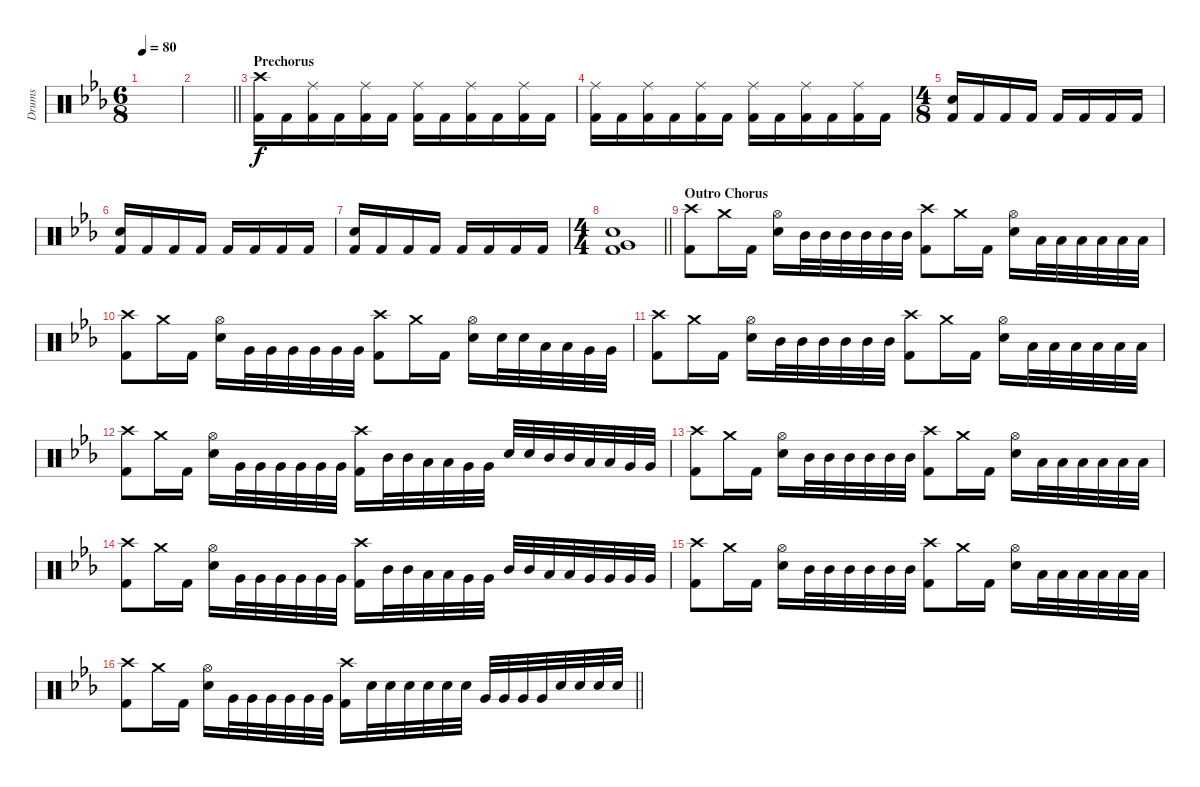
\track ("Drums" "Drums") {instrument percussion}
\staff {score}
\articulation defaults
\ts (6 8)
\tempo 80
\clef neutral
\ks cminor
|
\barLineRight lightlight
|
\section ("" "Prechorus")
("Crash high (hit)" "Kick (hit) 2").16 "Kick (hit) 2".16 ("Ride (middle)" "Kick (hit) 2").16 "Kick (hit) 2".16 ("Ride (middle)" "Kick (hit) 2").16 "Kick (hit) 2".16 ("Ride (middle)" "Kick (hit) 2").16 "Kick (hit) 2".16 ("Ride (middle)" "Kick (hit) 2").16 "Kick (hit) 2".16 ("Ride (middle)" "Kick (hit) 2").16 "Kick (hit) 2".16 |
("Ride (middle)" "Kick (hit) 2").16 "Kick (hit) 2".16 ("Ride (middle)" "Kick (hit) 2").16 "Kick (hit) 2".16 ("Ride (middle)" "Kick (hit) 2").16 "Kick (hit) 2".16 ("Ride (middle)" "Kick (hit) 2").16 "Kick (hit) 2".16 ("Ride (middle)" "Kick (hit) 2").16 "Kick (hit) 2".16 ("Ride (middle)" "Kick (hit) 2").16 "Kick (hit) 2".16 |
\ts (4 8)
("Snare (hit) 2" "Kick (hit) 2").16 "Kick (hit) 2".16 "Kick (hit) 2".16 "Kick (hit) 2".16 "Kick (hit) 2".16 "Kick (hit) 2".16 "Kick (hit) 2".16 "Kick (hit) 2".16 |
("Snare (hit) 2" "Kick (hit) 2").16 "Kick (hit) 2".16 "Kick (hit) 2".16 "Kick (hit) 2".16 "Kick (hit) 2".16 "Kick (hit) 2".16 "Kick (hit) 2".16 "Kick (hit) 2".16 |
("Snare (hit) 2" "Kick (hit) 2").16 "Kick (hit) 2".16 "Kick (hit) 2".16 "Kick (hit) 2".16 "Kick (hit) 2".16 "Kick (hit) 2".16 "Kick (hit) 2".16 "Kick (hit) 2".16 |
\ts (4 4)
\barLineRight lightlight
("Snare (hit) 2" "Very Low Tom (hit)" "Kick (hit) 2").1 |
\section ("" "Outro Chorus")
("Crash high (hit)" "Kick (hit) 2").8 "Crash medium (hit)".16 "Kick (hit) 2".16 ("Hi-Hat (open)" "Snare (hit) 2").16 "Mid Tom (hit)".32 "Mid Tom (hit)".32 "Mid Tom (hit)".32 "Mid Tom (hit)".32 "Mid Tom (hit)".32 "Mid Tom (hit)".32 ("Crash high (hit)" "Kick (hit) 2").8 "Crash medium (hit)".16 "Kick (hit) 2".16 ("Hi-Hat (open)" "Snare (hit) 2").16 "Low Tom (hit)".32 "Low Tom (hit)".32 "Low Tom (hit)".32 "Low Tom (hit)".32 "Low Tom (hit)".32 "Low Tom (hit)".32 |
("Crash high (hit)" "Kick (hit) 2").8 "Crash medium (hit)".16 "Kick (hit) 2".16 ("Hi-Hat (open)" "Snare (hit) 2").16 "Very Low Tom (hit)".32 "Very Low Tom (hit)".32 "Very Low Tom (hit)".32 "Very Low Tom (hit)".32 "Very Low Tom (hit)".32 "Very Low Tom (hit)".32 ("Crash high (hit)" "Kick (hit) 2").8 "Crash medium (hit)".16 "Kick (hit) 2".16 ("Hi-Hat (open)" "Snare (hit) 2").16 "Snare (hit) 2".32 "Snare (hit) 2".32 "Low Tom (hit)".32 "Low Tom (hit)".32 "Very Low Tom (hit)".32 "Very Low Tom (hit)".32 |
("Crash high (hit)" "Kick (hit) 2").8 "Crash medium (hit)".16 "Kick (hit) 2".16 ("Hi-Hat (open)" "Snare (hit) 2").16 "Mid Tom (hit)".32 "Mid Tom (hit)".32 "Mid Tom (hit)".32 "Mid Tom (hit)".32 "Mid Tom (hit)".32 "Mid Tom (hit)".32 ("Crash high (hit)" "Kick (hit) 2").8 "Crash medium (hit)".16 "Kick (hit) 2".16 ("Hi-Hat (open)" "Snare (hit) 2").16 "Low Tom (hit)".32 "Low Tom (hit)".32 "Low Tom (hit)".32 "Low Tom (hit)".32 "Low Tom (hit)".32 "Low Tom (hit)".32 |
("Crash high (hit)" "Kick (hit) 2").8 "Crash medium (hit)".16 "Kick (hit) 2".16 ("Hi-Hat (open)" "Snare (hit) 2").16 "Very Low Tom (hit)".32 "Very Low Tom (hit)".32 "Very Low Tom (hit)".32 "Very Low Tom (hit)".32 "Very Low Tom (hit)".32 "Very Low Tom (hit)".32 ("Crash high (hit)" "Kick (hit) 2").16 "Mid Tom (hit)".32 "Mid Tom (hit)".32 "Low Tom (hit)".32 "Low Tom (hit)".32 "Very Low Tom (hit)".32 "Very Low Tom (hit)".32 "Snare (hit) 2".32 "Snare (hit) 2".32 "Mid Tom (hit)".32 "Mid Tom (hit)".32 "Low Tom (hit)".32 "Low Tom (hit)".32 "Very Low Tom (hit)".32 "Very Low Tom (hit)".32 |
("Crash high (hit)" "Kick (hit) 2").8 "Crash medium (hit)".16 "Kick (hit) 2".16 ("Hi-Hat (open)" "Snare (hit) 2").16 "Mid Tom (hit)".32 "Mid Tom (hit)".32 "Mid Tom (hit)".32 "Mid Tom (hit)".32 "Mid Tom (hit)".32 "Mid Tom (hit)".32 ("Crash high (hit)" "Kick (hit) 2").8 "Crash medium (hit)".16 "Kick (hit) 2".16 ("Hi-Hat (open)" "Snare (hit) 2").16 "Low Tom (hit)".32 "Low Tom (hit)".32 "Low Tom (hit)".32 "Low Tom (hit)".32 "Low Tom (hit)".32 "Low Tom (hit)".32 |
("Crash high (hit)" "Kick (hit) 2").8 "Crash medium (hit)".16 "Kick (hit) 2".16 ("Hi-Hat (open)" "Snare (hit) 2").16 "Very Low Tom (hit)".32 "Very Low Tom (hit)".32 "Very Low Tom (hit)".32 "Very Low Tom (hit)".32 "Very Low Tom (hit)".32 "Very Low Tom (hit)".32 ("Crash high (hit)" "Kick (hit) 2").16 "Mid Tom (hit)".32 "Mid Tom (hit)".32 "Low Tom (hit)".32 "Low Tom (hit)".32 "Very Low Tom (hit)".32 "Very Low Tom (hit)".32 "Mid Tom (hit)".32 "Mid Tom (hit)".32 "Low Tom (hit)".32 "Low Tom (hit)".32 "Very Low Tom (hit)".32 "Very Low Tom (hit)".32 "Very Low Tom (hit)".32 "Very Low Tom (hit)".32 |
("Crash high (hit)" "Kick (hit) 2").8 "Crash medium (hit)".16 "Kick (hit) 2".16 ("Hi-Hat (open)" "Snare (hit) 2").16 "Mid Tom (hit)".32 "Mid Tom (hit)".32 "Mid Tom (hit)".32 "Mid Tom (hit)".32 "Mid Tom (hit)".32 "Mid Tom (hit)".32 ("Crash high (hit)" "Kick (hit) 2").8 "Crash medium (hit)".16 "Kick (hit) 2".16 ("Hi-Hat (open)" "Snare (hit) 2").16 "Low Tom (hit)".32 "Low Tom (hit)".32 "Low Tom (hit)".32 "Low Tom (hit)".32 "Low Tom (hit)".32 "Low Tom (hit)".32 |
\barLineRight lightlight
("Crash high (hit)" "Kick (hit) 2").8 "Crash medium (hit)".16 "Kick (hit) 2".16 ("Hi-Hat (open)" "Snare (hit) 2").16 "Very Low Tom (hit)".32 "Very Low Tom (hit)".32 "Very Low Tom (hit)".32 "Very Low Tom (hit)".32 "Very Low Tom (hit)".32 "Very Low Tom (hit)".32 ("Crash high (hit)" "Kick (hit) 2").16 "Snare (hit) 2".32 "Snare (hit) 2".32 "Snare (hit) 2".32 "Snare (hit) 2".32 "Snare (hit) 2".32 "Snare (hit) 2".32 "Very Low Tom (hit)".32 "Very Low Tom (hit)".32 "Very Low Tom (hit)".32 "Very Low Tom (hit)".32 "Snare (hit) 2".32 "Snare (hit) 2".32 "Snare (hit) 2".32 "Snare (hit) 2".32
